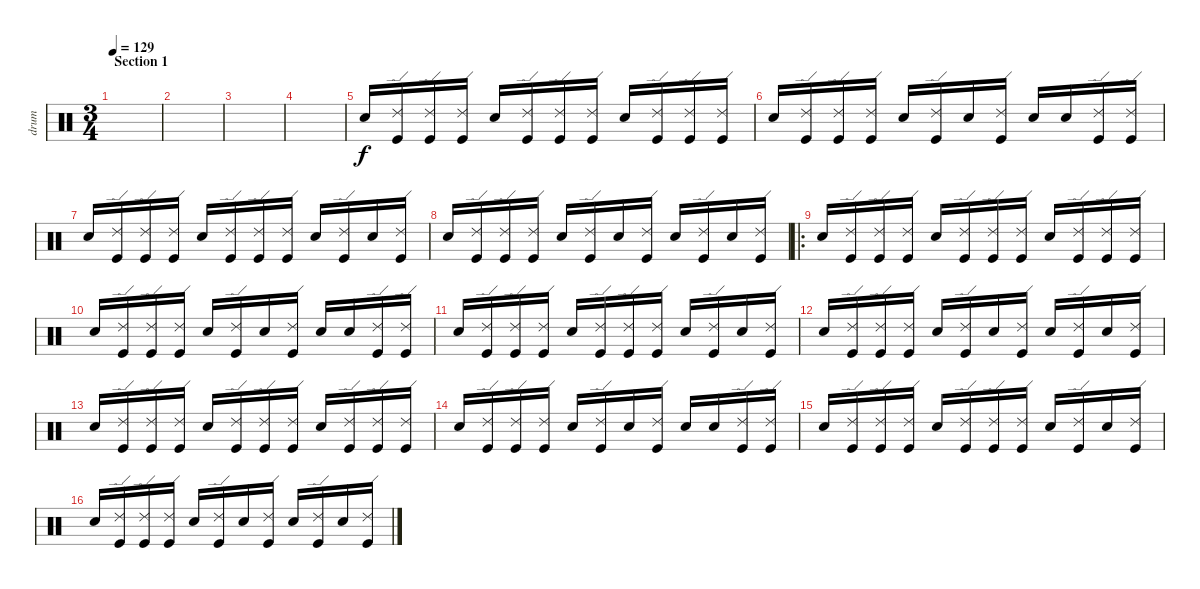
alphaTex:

\track ("drum" "drum") {instrument percussion}
\staff {score}
\articulation defaults
\ts (3 4)
\section ("" "Section 1")
\tempo 129
\clef neutral
\ks c
|
|
|
|
"Electric Snare (hit)".16{volume 11} ("Kick (hit)" "Ride (edge) 2").16 ("Kick (hit)" "Ride (edge) 2").16 ("Kick (hit)" "Ride (edge) 2").16 "Electric Snare (hit)".16 ("Kick (hit)" "Ride (edge) 2").16 ("Kick (hit)" "Ride (edge) 2").16 ("Kick (hit)" "Ride (edge) 2").16 "Electric Snare (hit)".16 ("Kick (hit)" "Ride (edge) 2").16 ("Kick (hit)" "Ride (edge) 2").16 ("Kick (hit)" "Ride (edge) 2").16 |
"Electric Snare (hit)".16 ("Kick (hit)" "Ride (edge) 2").16 ("Kick (hit)" "Ride (edge) 2").16 ("Kick (hit)" "Ride (edge) 2").16 "Electric Snare (hit)".16 ("Kick (hit)" "Ride (edge) 2").16 "Electric Snare (hit)".16 ("Kick (hit)" "Ride (edge) 2").16 "Electric Snare (hit)".16 "Electric Snare (hit)".16 ("Kick (hit)" "Ride (edge) 2").16 ("Kick (hit)" "Ride (edge) 2").16 |
"Electric Snare (hit)".16 ("Kick (hit)" "Ride (edge) 2").16 ("Kick (hit)" "Ride (edge) 2").16 ("Kick (hit)" "Ride (edge) 2").16 "Electric Snare (hit)".16 ("Kick (hit)" "Ride (edge) 2").16 ("Kick (hit)" "Ride (edge) 2").16 ("Kick (hit)" "Ride (edge) 2").16 "Electric Snare (hit)".16 ("Kick (hit)" "Ride (edge) 2").16 "Electric Snare (hit)".16 ("Kick (hit)" "Ride (edge) 2").16 |
"Electric Snare (hit)".16 ("Kick (hit)" "Ride (edge) 2").16 ("Kick (hit)" "Ride (edge) 2").16 ("Kick (hit)" "Ride (edge) 2").16 "Electric Snare (hit)".16 ("Kick (hit)" "Ride (edge) 2").16 "Electric Snare (hit)".16 ("Kick (hit)" "Ride (edge) 2").16 "Electric Snare (hit)".16 ("Kick (hit)" "Ride (edge) 2").16 "Electric Snare (hit)".16 ("Kick (hit)" "Ride (edge) 2").16 |
\ro "Electric Snare (hit)".16
("Kick (hit)" "Ride (edge) 2").16 ("Kick (hit)" "Ride (edge) 2").16 ("Kick (hit)" "Ride (edge) 2").16 "Electric Snare (hit)".16 ("Kick (hit)" "Ride (edge) 2").16 ("Kick (hit)" "Ride (edge) 2").16 ("Kick (hit)" "Ride (edge) 2").16 "Electric Snare (hit)".16 ("Kick (hit)" "Ride (edge) 2").16 ("Kick (hit)" "Ride (edge) 2").16 ("Kick (hit)" "Ride (edge) 2").16 |
"Electric Snare (hit)".16 ("Kick (hit)" "Ride (edge) 2").16 ("Kick (hit)" "Ride (edge) 2").16 ("Kick (hit)" "Ride (edge) 2").16 "Electric Snare (hit)".16 ("Kick (hit)" "Ride (edge) 2").16 "Electric Snare (hit)".16 ("Kick (hit)" "Ride (edge) 2").16 "Electric Snare (hit)".16 "Electric Snare (hit)".16 ("Kick (hit)" "Ride (edge) 2").16 ("Kick (hit)" "Ride (edge) 2").16 |
"Electric Snare (hit)".16 ("Kick (hit)" "Ride (edge) 2").16 ("Kick (hit)" "Ride (edge) 2").16 ("Kick (hit)" "Ride (edge) 2").16 "Electric Snare (hit)".16 ("Kick (hit)" "Ride (edge) 2").16 ("Kick (hit)" "Ride (edge) 2").16 ("Kick (hit)" "Ride (edge) 2").16 "Electric Snare (hit)".16 ("Kick (hit)" "Ride (edge) 2").16 "Electric Snare (hit)".16 ("Kick (hit)" "Ride (edge) 2").16 |
"Electric Snare (hit)".16 ("Kick (hit)" "Ride (edge) 2").16 ("Kick (hit)" "Ride (edge) 2").16 ("Kick (hit)" "Ride (edge) 2").16 "Electric Snare (hit)".16 ("Kick (hit)" "Ride (edge) 2").16 "Electric Snare (hit)".16 ("Kick (hit)" "Ride (edge) 2").16 "Electric Snare (hit)".16 ("Kick (hit)" "Ride (edge) 2").16 "Electric Snare (hit)".16 ("Kick (hit)" "Ride (edge) 2").16 |
"Electric Snare (hit)".16 ("Kick (hit)" "Ride (edge) 2").16 ("Kick (hit)" "Ride (edge) 2").16 ("Kick (hit)" "Ride (edge) 2").16 "Electric Snare (hit)".16 ("Kick (hit)" "Ride (edge) 2").16 ("Kick (hit)" "Ride (edge) 2").16 ("Kick (hit)" "Ride (edge) 2").16 "Electric Snare (hit)".16 ("Kick (hit)" "Ride (edge) 2").16 ("Kick (hit)" "Ride (edge) 2").16 ("Kick (hit)" "Ride (edge) 2").16 |
"Electric Snare (hit)".16 ("Kick (hit)" "Ride (edge) 2").16 ("Kick (hit)" "Ride (edge) 2").16 ("Kick (hit)" "Ride (edge) 2").16 "Electric Snare (hit)".16 ("Kick (hit)" "Ride (edge) 2").16 "Electric Snare (hit)".16 ("Kick (hit)" "Ride (edge) 2").16 "Electric Snare (hit)".16 "Electric Snare (hit)".16 ("Kick (hit)" "Ride (edge) 2").16 ("Kick (hit)" "Ride (edge) 2").16 |
"Electric Snare (hit)".16 ("Kick (hit)" "Ride (edge) 2").16 ("Kick (hit)" "Ride (edge) 2").16 ("Kick (hit)" "Ride (edge) 2").16 "Electric Snare (hit)".16 ("Kick (hit)" "Ride (edge) 2").16 ("Kick (hit)" "Ride (edge) 2").16 ("Kick (hit)" "Ride (edge) 2").16 "Electric Snare (hit)".16 ("Kick (hit)" "Ride (edge) 2").16 "Electric Snare (hit)".16 ("Kick (hit)" "Ride (edge) 2").16 |
"Electric Snare (hit)".16 ("Kick (hit)" "Ride (edge) 2").16 ("Kick (hit)" "Ride (edge) 2").16 ("Kick (hit)" "Ride (edge) 2").16 "Electric Snare (hit)".16 ("Kick (hit)" "Ride (edge) 2").16 "Electric Snare (hit)".16 ("Kick (hit)" "Ride (edge) 2").16 "Electric Snare (hit)".16 ("Kick (hit)" "Ride (edge) 2").16 "Electric Snare (hit)".16 ("Kick (hit)" "Ride (edge) 2").16
